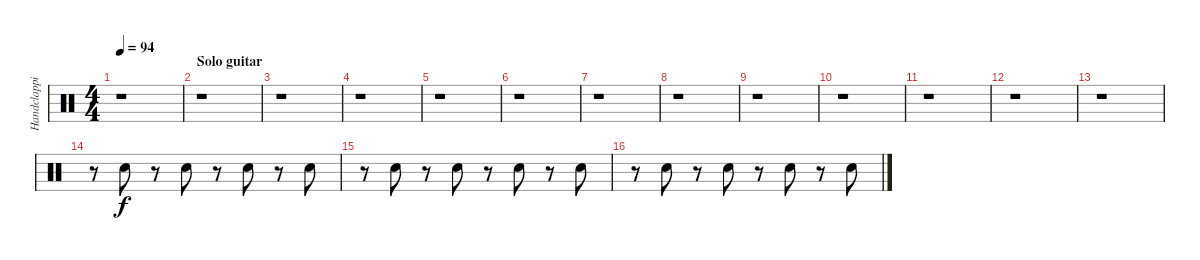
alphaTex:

\track ("Handclapping" "Handclappi") {instrument percussion}
\staff {score}
\articulation defaults
\ts (4 4)
\tempo 94
\clef neutral
\ks c
r.1{dy f} |
\section ("" "Solo guitar")
r.1 |
r.1 |
r.1 |
r.1 |
r.1 |
r.1 |
r.1 |
r.1 |
r.1 |
r.1 |
r.1 |
r.1 |
r.8 "Hand Clap (hit)".8 r.8 "Hand Clap (hit)".8 r.8 "Hand Clap (hit)".8 r.8 "Hand Clap (hit)".8 |
r.8 "Hand Clap (hit)".8 r.8 "Hand Clap (hit)".8 r.8 "Hand Clap (hit)".8 r.8 "Hand Clap (hit)".8 |
r.8 "Hand Clap (hit)".8 r.8 "Hand Clap (hit)".8 r.8 "Hand Clap (hit)".8 r.8 "Hand Clap (hit)".8
